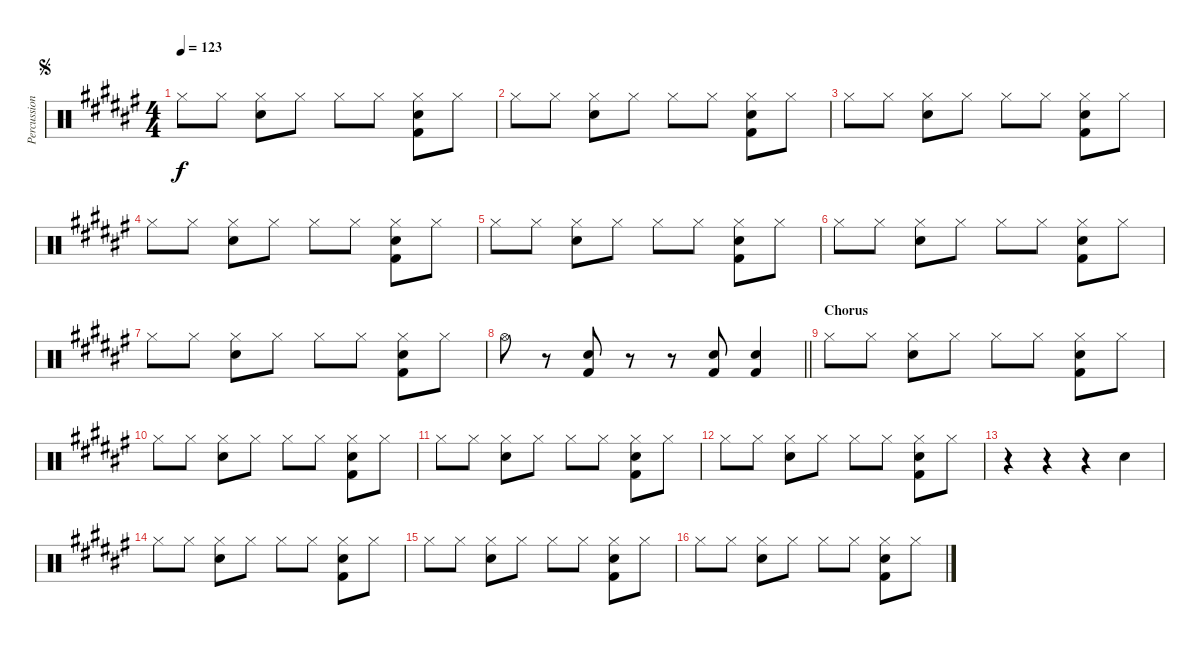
\track ("Percussion" "Percussion") {instrument percussion}
\staff {score}
\articulation defaults
\ts (4 4)
\jump segno
\tempo 123
\clef neutral
\ks f# "Hi-Hat (closed)".8{dy f} "Hi-Hat (closed)".8
("Hi-Hat (closed)" "Snare (hit) 2").8 "Hi-Hat (closed)".8 "Hi-Hat (closed)".8 "Hi-Hat (closed)".8 ("Hi-Hat (closed)" "Snare (hit) 2" "Kick (hit) 2").8 "Hi-Hat (closed)".8 |
"Hi-Hat (closed)".8 "Hi-Hat (closed)".8 ("Hi-Hat (closed)" "Snare (hit) 2").8 "Hi-Hat (closed)".8 "Hi-Hat (closed)".8 "Hi-Hat (closed)".8 ("Hi-Hat (closed)" "Snare (hit) 2" "Kick (hit) 2").8 "Hi-Hat (closed)".8 |
"Hi-Hat (closed)".8 "Hi-Hat (closed)".8 ("Hi-Hat (closed)" "Snare (hit) 2").8 "Hi-Hat (closed)".8 "Hi-Hat (closed)".8 "Hi-Hat (closed)".8 ("Hi-Hat (closed)" "Snare (hit) 2" "Kick (hit) 2").8 "Hi-Hat (closed)".8 |
"Hi-Hat (closed)".8 "Hi-Hat (closed)".8 ("Hi-Hat (closed)" "Snare (hit) 2").8 "Hi-Hat (closed)".8 "Hi-Hat (closed)".8 "Hi-Hat (closed)".8 ("Hi-Hat (closed)" "Snare (hit) 2" "Kick (hit) 2").8 "Hi-Hat (closed)".8 |
"Hi-Hat (closed)".8 "Hi-Hat (closed)".8 ("Hi-Hat (closed)" "Snare (hit) 2").8 "Hi-Hat (closed)".8 "Hi-Hat (closed)".8 "Hi-Hat (closed)".8 ("Hi-Hat (closed)" "Snare (hit) 2" "Kick (hit) 2").8 "Hi-Hat (closed)".8 |
"Hi-Hat (closed)".8 "Hi-Hat (closed)".8 ("Hi-Hat (closed)" "Snare (hit) 2").8 "Hi-Hat (closed)".8 "Hi-Hat (closed)".8 "Hi-Hat (closed)".8 ("Hi-Hat (closed)" "Snare (hit) 2" "Kick (hit) 2").8 "Hi-Hat (closed)".8 |
"Hi-Hat (closed)".8 "Hi-Hat (closed)".8 ("Hi-Hat (closed)" "Snare (hit) 2").8 "Hi-Hat (closed)".8 "Hi-Hat (closed)".8 "Hi-Hat (closed)".8 ("Hi-Hat (closed)" "Snare (hit) 2" "Kick (hit) 2").8 "Hi-Hat (closed)".8 |
\barLineRight lightlight "Hi-Hat (open)".8
r.8 ("Snare (hit) 2" "Kick (hit) 2").8 r.8 r.8 ("Snare (hit) 2" "Kick (hit) 2").8 ("Snare (hit) 2" "Kick (hit) 2").4 |
\section ("" "Chorus")
"Hi-Hat (closed)".8 "Hi-Hat (closed)".8 ("Hi-Hat (closed)" "Snare (hit) 2").8 "Hi-Hat (closed)".8 "Hi-Hat (closed)".8 "Hi-Hat (closed)".8 ("Hi-Hat (closed)" "Snare (hit) 2" "Kick (hit) 2").8 "Hi-Hat (closed)".8 |
"Hi-Hat (closed)".8 "Hi-Hat (closed)".8 ("Hi-Hat (closed)" "Snare (hit) 2").8 "Hi-Hat (closed)".8 "Hi-Hat (closed)".8 "Hi-Hat (closed)".8 ("Hi-Hat (closed)" "Snare (hit) 2" "Kick (hit) 2").8 "Hi-Hat (closed)".8 |
"Hi-Hat (closed)".8 "Hi-Hat (closed)".8 ("Hi-Hat (closed)" "Snare (hit) 2").8 "Hi-Hat (closed)".8 "Hi-Hat (closed)".8 "Hi-Hat (closed)".8 ("Hi-Hat (closed)" "Snare (hit) 2" "Kick (hit) 2").8 "Hi-Hat (closed)".8 |
"Hi-Hat (closed)".8 "Hi-Hat (closed)".8 ("Hi-Hat (closed)" "Snare (hit) 2").8 "Hi-Hat (closed)".8 "Hi-Hat (closed)".8 "Hi-Hat (closed)".8 ("Hi-Hat (closed)" "Snare (hit) 2" "Kick (hit) 2").8 "Hi-Hat (closed)".8 |
r.4 r.4 r.4 "Snare (hit) 2".4 |
"Hi-Hat (closed)".8 "Hi-Hat (closed)".8 ("Hi-Hat (closed)" "Snare (hit) 2").8 "Hi-Hat (closed)".8 "Hi-Hat (closed)".8 "Hi-Hat (closed)".8 ("Hi-Hat (closed)" "Snare (hit) 2" "Kick (hit) 2").8 "Hi-Hat (closed)".8 |
"Hi-Hat (closed)".8 "Hi-Hat (closed)".8 ("Hi-Hat (closed)" "Snare (hit) 2").8 "Hi-Hat (closed)".8 "Hi-Hat (closed)".8 "Hi-Hat (closed)".8 ("Hi-Hat (closed)" "Snare (hit) 2" "Kick (hit) 2").8 "Hi-Hat (closed)".8 |
"Hi-Hat (closed)".8 "Hi-Hat (closed)".8 ("Hi-Hat (closed)" "Snare (hit) 2").8 "Hi-Hat (closed)".8 "Hi-Hat (closed)".8 "Hi-Hat (closed)".8 ("Hi-Hat (closed)" "Snare (hit) 2" "Kick (hit) 2").8 "Hi-Hat (closed)".8
